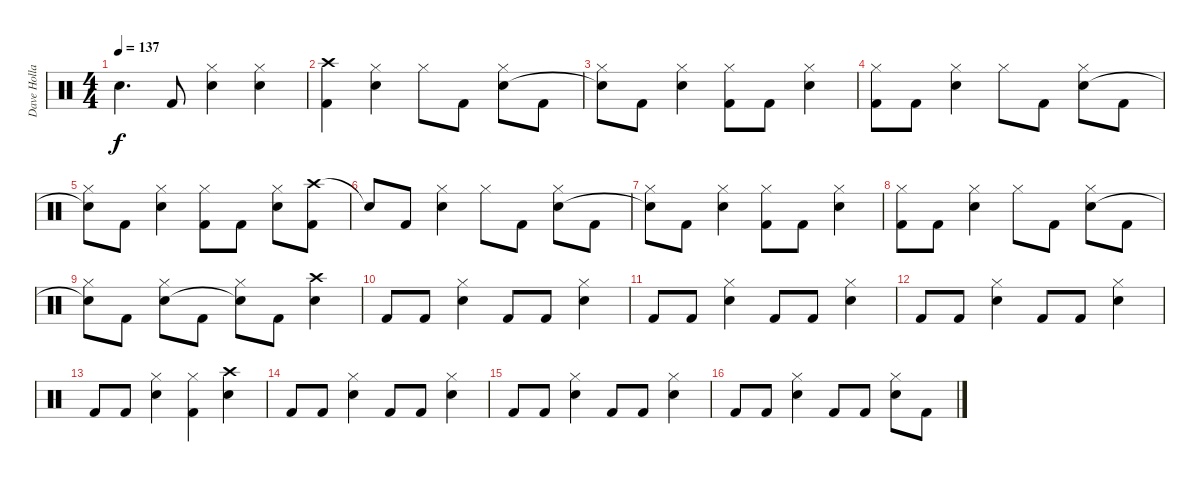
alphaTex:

\track ("Dave Holland" "Dave Holla") {instrument percussion}
\staff {score}
\articulation defaults
\ts (4 4)
\tempo 137
\clef neutral
\ks c "Snare (hit) 2".4{d dy f} "Kick (hit) 2".8
("Hi-Hat (closed)" "Snare (hit) 2").4 ("Hi-Hat (closed)" "Snare (hit) 2").4 |
("Crash high (hit)" "Kick (hit) 2").4 ("Hi-Hat (closed)" "Snare (hit) 2").4 "Hi-Hat (closed)".8 "Kick (hit) 2".8 ("Hi-Hat (closed)" "Snare (hit) 2").8 "Kick (hit) 2".8 |
("Hi-Hat (closed)" "Snare (hit)"{t}).8 "Kick (hit) 2".8 ("Hi-Hat (closed)" "Snare (hit) 2").4 ("Hi-Hat (closed)" "Kick (hit) 2").8 "Kick (hit) 2".8 ("Hi-Hat (closed)" "Snare (hit) 2").4 |
("Hi-Hat (closed)" "Kick (hit) 2").8 "Kick (hit) 2".8 ("Hi-Hat (closed)" "Snare (hit) 2").4 "Hi-Hat (closed)".8 "Kick (hit) 2".8 ("Hi-Hat (closed)" "Snare (hit) 2").8 "Kick (hit) 2".8 |
("Hi-Hat (closed)" "Snare (hit)"{t}).8 "Kick (hit) 2".8 ("Hi-Hat (closed)" "Snare (hit) 2").4 ("Hi-Hat (closed)" "Kick (hit) 2").8 "Kick (hit) 2".8 ("Hi-Hat (closed)" "Snare (hit) 2").8 ("Crash high (hit)" "Kick (hit) 2").8 |
"Snare (hit)"{t}.8 "Kick (hit) 2".8 ("Hi-Hat (closed)" "Snare (hit) 2").4 "Hi-Hat (closed)".8 "Kick (hit) 2".8 ("Hi-Hat (closed)" "Snare (hit) 2").8 "Kick (hit) 2".8 |
("Hi-Hat (closed)" "Snare (hit)"{t}).8 "Kick (hit) 2".8 ("Hi-Hat (closed)" "Snare (hit) 2").4 ("Hi-Hat (closed)" "Kick (hit) 2").8 "Kick (hit) 2".8 ("Hi-Hat (closed)" "Snare (hit) 2").4 |
("Hi-Hat (closed)" "Kick (hit) 2").8 "Kick (hit) 2".8 ("Hi-Hat (closed)" "Snare (hit) 2").4 "Hi-Hat (closed)".8 "Kick (hit) 2".8 ("Hi-Hat (closed)" "Snare (hit) 2").8 "Kick (hit) 2".8 |
("Hi-Hat (closed)" "Snare (hit)"{t}).8 "Kick (hit) 2".8 ("Hi-Hat (closed)" "Snare (hit) 2").8 "Kick (hit) 2".8 ("Hi-Hat (closed)" "Snare (hit)"{t}).8 "Kick (hit) 2".8 ("Crash high (hit)" "Snare (hit) 2").4 |
"Kick (hit) 2".8 "Kick (hit) 2".8 ("Hi-Hat (closed)" "Snare (hit) 2").4 "Kick (hit) 2".8 "Kick (hit) 2".8 ("Hi-Hat (closed)" "Snare (hit) 2").4 |
"Kick (hit) 2".8 "Kick (hit) 2".8 ("Hi-Hat (closed)" "Snare (hit) 2").4 "Kick (hit) 2".8 "Kick (hit) 2".8 ("Hi-Hat (closed)" "Snare (hit) 2").4 |
"Kick (hit) 2".8 "Kick (hit) 2".8 ("Hi-Hat (closed)" "Snare (hit) 2").4 "Kick (hit) 2".8 "Kick (hit) 2".8 ("Hi-Hat (closed)" "Snare (hit) 2").4 |
"Kick (hit) 2".8 "Kick (hit) 2".8 ("Hi-Hat (closed)" "Snare (hit) 2").4 ("Hi-Hat (closed)" "Kick (hit) 2").4 ("Crash high (hit)" "Snare (hit) 2").4 |
"Kick (hit) 2".8 "Kick (hit) 2".8 ("Hi-Hat (closed)" "Snare (hit) 2").4 "Kick (hit) 2".8 "Kick (hit) 2".8 ("Hi-Hat (closed)" "Snare (hit) 2").4 |
"Kick (hit) 2".8 "Kick (hit) 2".8 ("Hi-Hat (closed)" "Snare (hit) 2").4 "Kick (hit) 2".8 "Kick (hit) 2".8 ("Hi-Hat (closed)" "Snare (hit) 2").4 |
"Kick (hit) 2".8 "Kick (hit) 2".8 ("Hi-Hat (closed)" "Snare (hit) 2").4 "Kick (hit) 2".8 "Kick (hit) 2".8 ("Hi-Hat (closed)" "Snare (hit) 2").8 "Kick (hit) 2".8
